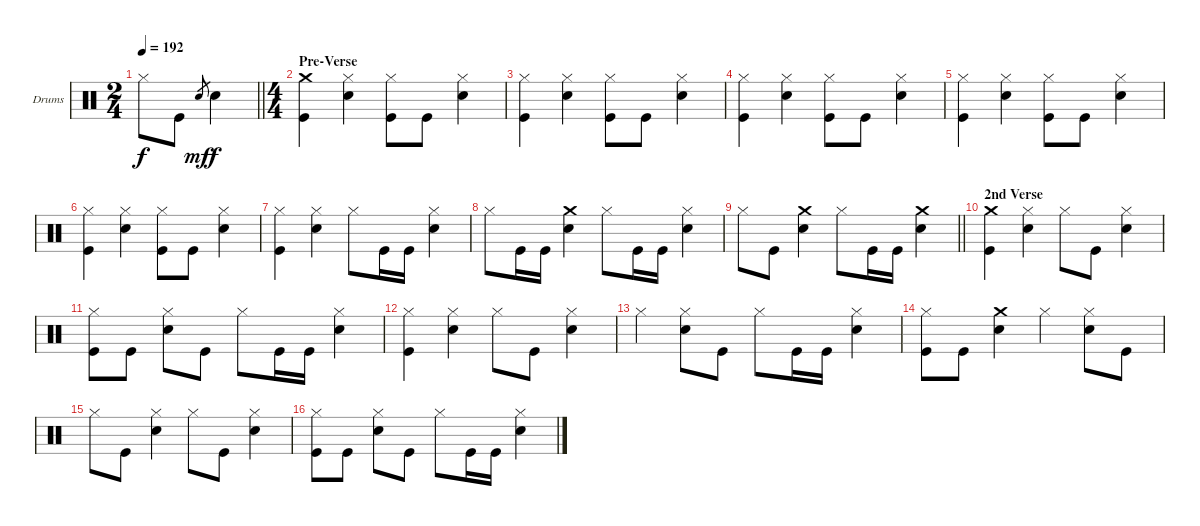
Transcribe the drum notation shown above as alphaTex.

\bracketExtendMode groupsimilarinstruments
\firstSystemTrackNameOrientation horizontal
\otherSystemsTrackNameOrientation horizontal
\track ("Lars Ulrich" "Drums") {instrument percussion}
\staff {score}
\articulation defaults
\ts (2 4)
\beaming (8 2 2)
\tempo 192
\clef neutral
\barLineRight lightlight
\ks c "Hi-Hat (closed)".8{dy f} "Kick (hit)".8 "Snare (hit) 2".8{gr dy mf} "Snare (hit) 2".4{dy f}
|
\ts (4 4)
\beaming (8 2 2 2 2)
\section ("" "Pre-Verse")
("Crash medium (hit)" "Kick (hit)").4 ("Hi-Hat (closed)" "Snare (hit) 2").4 ("Hi-Hat (closed)" "Kick (hit)").8 "Kick (hit)".8 ("Hi-Hat (closed)" "Snare (hit) 2").4 |
("Hi-Hat (closed)" "Kick (hit)").4 ("Hi-Hat (closed)" "Snare (hit) 2").4 ("Hi-Hat (closed)" "Kick (hit)").8 "Kick (hit)".8 ("Hi-Hat (closed)" "Snare (hit) 2").4 |
("Hi-Hat (closed)" "Kick (hit)").4 ("Hi-Hat (closed)" "Snare (hit) 2").4 ("Hi-Hat (closed)" "Kick (hit)").8 "Kick (hit)".8 ("Hi-Hat (closed)" "Snare (hit) 2").4 |
("Hi-Hat (closed)" "Kick (hit)").4 ("Hi-Hat (closed)" "Snare (hit) 2").4 ("Hi-Hat (closed)" "Kick (hit)").8 "Kick (hit)".8 ("Hi-Hat (closed)" "Snare (hit) 2").4 |
("Hi-Hat (closed)" "Kick (hit)").4 ("Hi-Hat (closed)" "Snare (hit) 2").4 ("Hi-Hat (closed)" "Kick (hit)").8 "Kick (hit)".8 ("Hi-Hat (closed)" "Snare (hit) 2").4 |
("Hi-Hat (closed)" "Kick (hit)").4 ("Hi-Hat (closed)" "Snare (hit) 2").4 "Hi-Hat (closed)".8 "Kick (hit)".16 "Kick (hit)".16 ("Hi-Hat (closed)" "Snare (hit) 2").4 |
"Hi-Hat (closed)".8 "Kick (hit)".16 "Kick (hit)".16 ("Crash medium (hit)" "Snare (hit) 2").4 "Hi-Hat (closed)".8 "Kick (hit)".16 "Kick (hit)".16 ("Hi-Hat (closed)" "Snare (hit) 2").4 |
\barLineRight lightlight "Hi-Hat (closed)".8 "Kick (hit)".8
("Crash medium (hit)" "Snare (hit) 2").4 "Hi-Hat (closed)".8 "Kick (hit)".16 "Kick (hit)".16 ("Crash medium (hit)" "Snare (hit) 2").4 |
\section ("" "2nd Verse")
("Crash medium (hit)" "Kick (hit)").4 ("Hi-Hat (closed)" "Snare (hit) 2").4 "Hi-Hat (closed)".8 "Kick (hit)".8 ("Hi-Hat (closed)" "Snare (hit) 2").4 |
("Hi-Hat (closed)" "Kick (hit)").8 "Kick (hit)".8 ("Hi-Hat (closed)" "Snare (hit) 2").8 "Kick (hit)".8 "Hi-Hat (closed)".8 "Kick (hit)".16 "Kick (hit)".16 ("Hi-Hat (closed)" "Snare (hit) 2").4 |
("Hi-Hat (closed)" "Kick (hit)").4 ("Hi-Hat (closed)" "Snare (hit) 2").4 "Hi-Hat (closed)".8 "Kick (hit)".8 ("Hi-Hat (closed)" "Snare (hit) 2").4 |
"Hi-Hat (closed)".4 ("Hi-Hat (closed)" "Snare (hit) 2").8 "Kick (hit)".8 "Hi-Hat (closed)".8 "Kick (hit)".16 "Kick (hit)".16 ("Hi-Hat (closed)" "Snare (hit) 2").4 |
("Hi-Hat (closed)" "Kick (hit)").8 "Kick (hit)".8 ("Crash medium (hit)" "Snare (hit) 2").4 "Hi-Hat (closed)".4 ("Hi-Hat (closed)" "Snare (hit) 2").8 "Kick (hit)".8 |
"Hi-Hat (closed)".8 "Kick (hit)".8 ("Hi-Hat (closed)" "Snare (hit) 2").4 "Hi-Hat (closed)".8 "Kick (hit)".8 ("Hi-Hat (closed)" "Snare (hit) 2").4 |
("Hi-Hat (closed)" "Kick (hit)").8 "Kick (hit)".8 ("Hi-Hat (closed)" "Snare (hit) 2").8 "Kick (hit)".8 "Hi-Hat (closed)".8 "Kick (hit)".16 "Kick (hit)".16 ("Hi-Hat (closed)" "Snare (hit) 2").4
